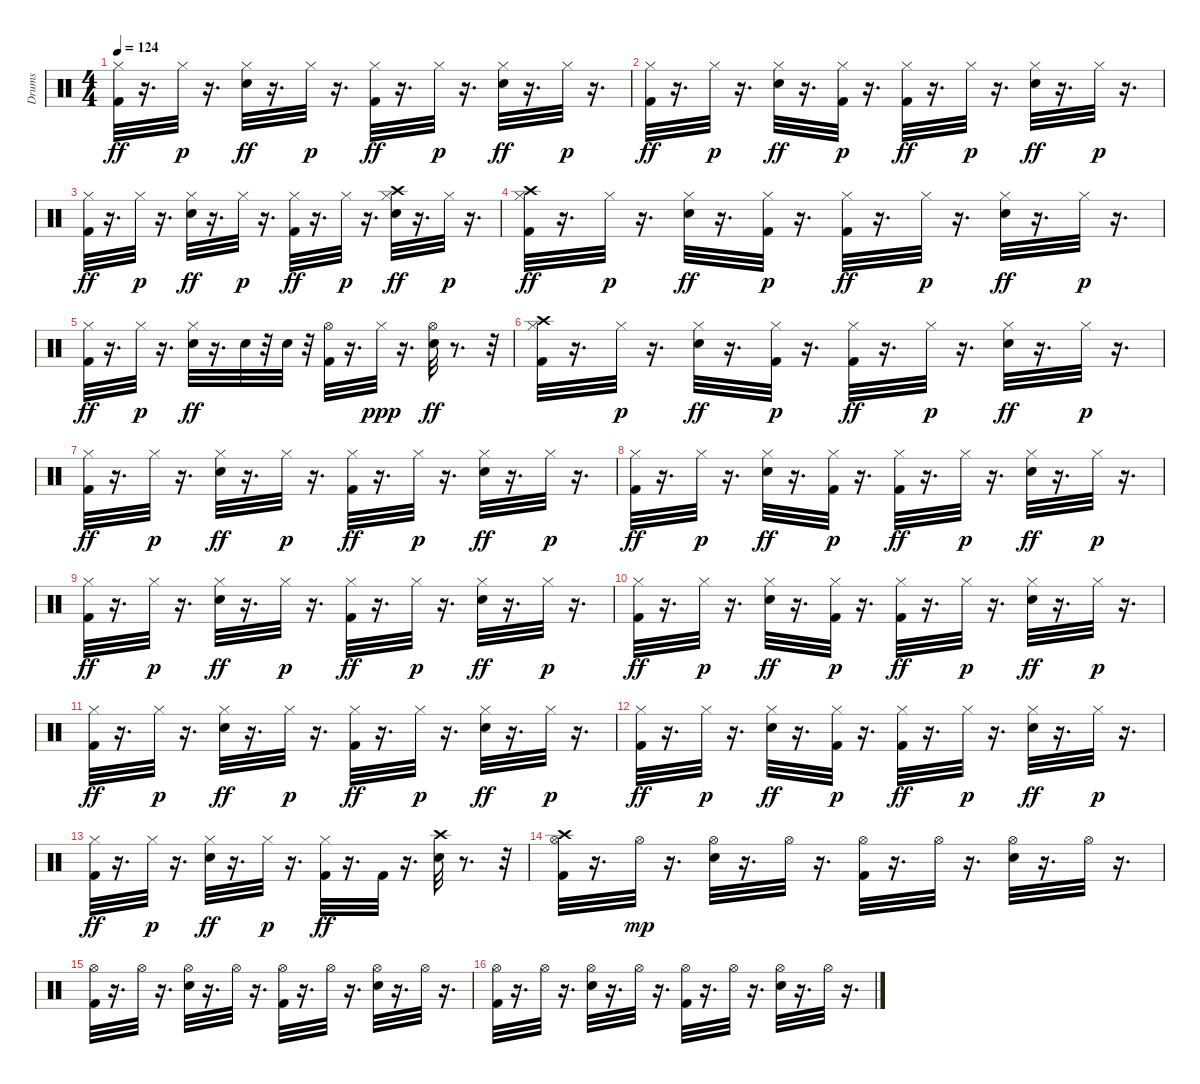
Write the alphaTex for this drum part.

\track ("Drums" "Drums") {instrument percussion}
\staff {score}
\articulation defaults
\ts (4 4)
\tempo 124
\clef neutral
\ks c
("Kick (hit) 2" "Hi-Hat (closed)").32{dy ff} r.16{d} "Hi-Hat (closed)".32{dy p} r.16{d} ("Snare (hit) 2" "Hi-Hat (closed)").32{dy ff} r.16{d} "Hi-Hat (closed)".32{dy p} r.16{d} ("Kick (hit) 2" "Hi-Hat (closed)").32{dy ff} r.16{d} "Hi-Hat (closed)".32{dy p} r.16{d} ("Snare (hit) 2" "Hi-Hat (closed)").32{dy ff} r.16{d} "Hi-Hat (closed)".32{dy p} r.16{d} |
("Kick (hit) 2" "Hi-Hat (closed)").32{dy ff} r.16{d} "Hi-Hat (closed)".32{dy p} r.16{d} ("Snare (hit) 2" "Hi-Hat (closed)").32{dy ff} r.16{d} ("Kick (hit) 2" "Hi-Hat (closed)").32{dy p} r.16{d} ("Kick (hit) 2" "Hi-Hat (closed)").32{dy ff} r.16{d} "Hi-Hat (closed)".32{dy p} r.16{d} ("Snare (hit) 2" "Hi-Hat (closed)").32{dy ff} r.16{d} "Hi-Hat (closed)".32{dy p} r.16{d} |
("Kick (hit) 2" "Hi-Hat (closed)").32{dy ff} r.16{d} "Hi-Hat (closed)".32{dy p} r.16{d} ("Snare (hit) 2" "Hi-Hat (closed)").32{dy ff} r.16{d} "Hi-Hat (closed)".32{dy p} r.16{d} ("Kick (hit) 2" "Hi-Hat (closed)").32{dy ff} r.16{d} "Hi-Hat (closed)".32{dy p} r.16{d} ("Snare (hit) 2" "Hi-Hat (closed)" "Crash high (hit)").32{dy ff} r.16{d} "Hi-Hat (closed)".32{dy p} r.16{d} |
("Kick (hit) 2" "Hi-Hat (closed)" "Crash high (hit)").32{dy ff} r.16{d} "Hi-Hat (closed)".32{dy p} r.16{d} ("Snare (hit) 2" "Hi-Hat (closed)").32{dy ff} r.16{d} ("Kick (hit) 2" "Hi-Hat (closed)").32{dy p} r.16{d} ("Kick (hit) 2" "Hi-Hat (closed)").32{dy ff} r.16{d} "Hi-Hat (closed)".32{dy p} r.16{d} ("Snare (hit) 2" "Hi-Hat (closed)").32{dy ff} r.16{d} "Hi-Hat (closed)".32{dy p} r.16{d} |
("Kick (hit) 2" "Hi-Hat (closed)").32{dy ff} r.16{d} "Hi-Hat (closed)".32{dy p} r.16{d} ("Snare (hit) 2" "Hi-Hat (closed)").32{dy ff} r.16{d} "Snare (hit) 2".32 r.32 "Snare (hit) 2".32 r.32 ("Kick (hit) 2" "Hi-Hat (open)").32 r.16{d} "Hi-Hat (closed)".32{dy ppp} r.16{d} ("Snare (hit) 2" "Hi-Hat (open)").32{dy ff} r.8{d} r.32 |
("Kick (hit) 2" "Hi-Hat (closed)" "Crash high (hit)").32 r.16{d} "Hi-Hat (closed)".32{dy p} r.16{d} ("Snare (hit) 2" "Hi-Hat (closed)").32{dy ff} r.16{d} ("Kick (hit) 2" "Hi-Hat (closed)").32{dy p} r.16{d} ("Kick (hit) 2" "Hi-Hat (closed)").32{dy ff} r.16{d} "Hi-Hat (closed)".32{dy p} r.16{d} ("Snare (hit) 2" "Hi-Hat (closed)").32{dy ff} r.16{d} "Hi-Hat (closed)".32{dy p} r.16{d} |
("Kick (hit) 2" "Hi-Hat (closed)").32{dy ff} r.16{d} "Hi-Hat (closed)".32{dy p} r.16{d} ("Snare (hit) 2" "Hi-Hat (closed)").32{dy ff} r.16{d} "Hi-Hat (closed)".32{dy p} r.16{d} ("Kick (hit) 2" "Hi-Hat (closed)").32{dy ff} r.16{d} "Hi-Hat (closed)".32{dy p} r.16{d} ("Snare (hit) 2" "Hi-Hat (closed)").32{dy ff} r.16{d} "Hi-Hat (closed)".32{dy p} r.16{d} |
("Kick (hit) 2" "Hi-Hat (closed)").32{dy ff} r.16{d} "Hi-Hat (closed)".32{dy p} r.16{d} ("Snare (hit) 2" "Hi-Hat (closed)").32{dy ff} r.16{d} ("Kick (hit) 2" "Hi-Hat (closed)").32{dy p} r.16{d} ("Kick (hit) 2" "Hi-Hat (closed)").32{dy ff} r.16{d} "Hi-Hat (closed)".32{dy p} r.16{d} ("Snare (hit) 2" "Hi-Hat (closed)").32{dy ff} r.16{d} "Hi-Hat (closed)".32{dy p} r.16{d} |
("Kick (hit) 2" "Hi-Hat (closed)").32{dy ff} r.16{d} "Hi-Hat (closed)".32{dy p} r.16{d} ("Snare (hit) 2" "Hi-Hat (closed)").32{dy ff} r.16{d} "Hi-Hat (closed)".32{dy p} r.16{d} ("Kick (hit) 2" "Hi-Hat (closed)").32{dy ff} r.16{d} "Hi-Hat (closed)".32{dy p} r.16{d} ("Snare (hit) 2" "Hi-Hat (closed)").32{dy ff} r.16{d} "Hi-Hat (closed)".32{dy p} r.16{d} |
("Kick (hit) 2" "Hi-Hat (closed)").32{dy ff} r.16{d} "Hi-Hat (closed)".32{dy p} r.16{d} ("Snare (hit) 2" "Hi-Hat (closed)").32{dy ff} r.16{d} ("Kick (hit) 2" "Hi-Hat (closed)").32{dy p} r.16{d} ("Kick (hit) 2" "Hi-Hat (closed)").32{dy ff} r.16{d} "Hi-Hat (closed)".32{dy p} r.16{d} ("Snare (hit) 2" "Hi-Hat (closed)").32{dy ff} r.16{d} "Hi-Hat (closed)".32{dy p} r.16{d} |
("Kick (hit) 2" "Hi-Hat (closed)").32{dy ff} r.16{d} "Hi-Hat (closed)".32{dy p} r.16{d} ("Snare (hit) 2" "Hi-Hat (closed)").32{dy ff} r.16{d} "Hi-Hat (closed)".32{dy p} r.16{d} ("Kick (hit) 2" "Hi-Hat (closed)").32{dy ff} r.16{d} "Hi-Hat (closed)".32{dy p} r.16{d} ("Snare (hit) 2" "Hi-Hat (closed)").32{dy ff} r.16{d} "Hi-Hat (closed)".32{dy p} r.16{d} |
("Kick (hit) 2" "Hi-Hat (closed)").32{dy ff} r.16{d} "Hi-Hat (closed)".32{dy p} r.16{d} ("Snare (hit) 2" "Hi-Hat (closed)").32{dy ff} r.16{d} ("Kick (hit) 2" "Hi-Hat (closed)").32{dy p} r.16{d} ("Kick (hit) 2" "Hi-Hat (closed)").32{dy ff} r.16{d} "Hi-Hat (closed)".32{dy p} r.16{d} ("Snare (hit) 2" "Hi-Hat (closed)").32{dy ff} r.16{d} "Hi-Hat (closed)".32{dy p} r.16{d} |
("Kick (hit) 2" "Hi-Hat (closed)").32{dy ff} r.16{d} "Hi-Hat (closed)".32{dy p} r.16{d} ("Snare (hit) 2" "Hi-Hat (closed)").32{dy ff} r.16{d} "Hi-Hat (closed)".32{dy p} r.16{d} ("Kick (hit) 2" "Hi-Hat (closed)").32{dy ff} r.16{d} "Kick (hit) 2".32 r.16{d} ("Snare (hit) 2" "Crash high (hit)").32 r.8{d} r.32 |
("Kick (hit) 2" "Hi-Hat (open)" "Crash high (hit)").32 r.16{d} "Hi-Hat (open)".32{dy mp} r.16{d} ("Snare (hit) 2" "Hi-Hat (open)").32 r.16{d} "Hi-Hat (open)".32 r.16{d} ("Kick (hit) 2" "Hi-Hat (open)").32 r.16{d} "Hi-Hat (open)".32 r.16{d} ("Snare (hit) 2" "Hi-Hat (open)").32 r.16{d} "Hi-Hat (open)".32 r.16{d} |
("Kick (hit) 2" "Hi-Hat (open)").32 r.16{d} "Hi-Hat (open)".32 r.16{d} ("Snare (hit) 2" "Hi-Hat (open)").32 r.16{d} "Hi-Hat (open)".32 r.16{d} ("Kick (hit) 2" "Hi-Hat (open)").32 r.16{d} "Hi-Hat (open)".32 r.16{d} ("Snare (hit) 2" "Hi-Hat (open)").32 r.16{d} "Hi-Hat (open)".32 r.16{d} |
("Kick (hit) 2" "Hi-Hat (open)").32 r.16{d} "Hi-Hat (open)".32 r.16{d} ("Snare (hit) 2" "Hi-Hat (open)").32 r.16{d} "Hi-Hat (open)".32 r.16{d} ("Kick (hit) 2" "Hi-Hat (open)").32 r.16{d} "Hi-Hat (open)".32 r.16{d} ("Snare (hit) 2" "Hi-Hat (open)").32 r.16{d} "Hi-Hat (open)".32 r.16{d}
